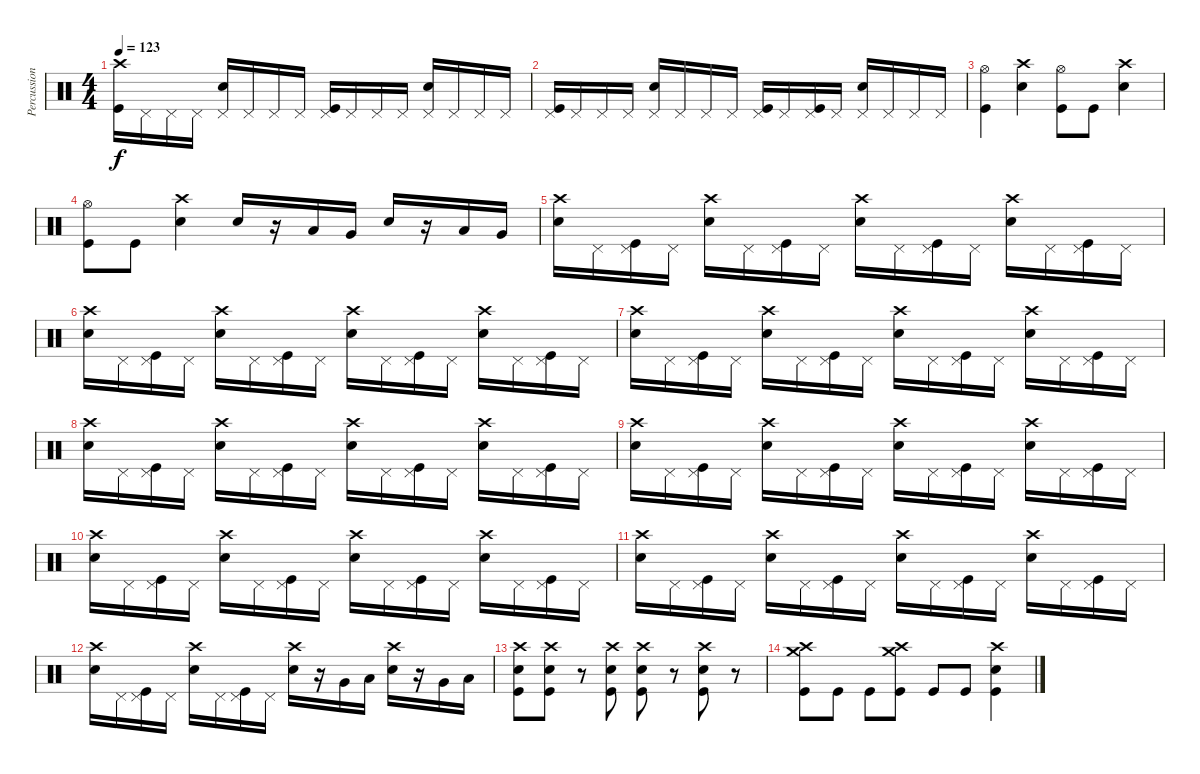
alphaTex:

\track ("Percussion" "Percussion") {instrument percussion}
\staff {score}
\articulation defaults
\ts (4 4)
\tempo 123
\clef neutral
\ks c
("Crash high (hit)" "Kick (hit)").16{dy f} "Pedal Hi-Hat (hit)".16 "Pedal Hi-Hat (hit)".16 "Pedal Hi-Hat (hit)".16 ("Pedal Hi-Hat (hit)" "Snare (hit) 2").16 "Pedal Hi-Hat (hit)".16 "Pedal Hi-Hat (hit)".16 "Pedal Hi-Hat (hit)".16 ("Pedal Hi-Hat (hit)" "Kick (hit)").16 "Pedal Hi-Hat (hit)".16 "Pedal Hi-Hat (hit)".16 "Pedal Hi-Hat (hit)".16 ("Pedal Hi-Hat (hit)" "Snare (hit) 2").16 "Pedal Hi-Hat (hit)".16 "Pedal Hi-Hat (hit)".16 "Pedal Hi-Hat (hit)".16 |
("Pedal Hi-Hat (hit)" "Kick (hit)").16 "Pedal Hi-Hat (hit)".16 "Pedal Hi-Hat (hit)".16 "Pedal Hi-Hat (hit)".16 ("Pedal Hi-Hat (hit)" "Snare (hit) 2").16 "Pedal Hi-Hat (hit)".16 "Pedal Hi-Hat (hit)".16 "Pedal Hi-Hat (hit)".16 ("Pedal Hi-Hat (hit)" "Kick (hit)").16 "Pedal Hi-Hat (hit)".16 ("Pedal Hi-Hat (hit)" "Kick (hit)").16 "Pedal Hi-Hat (hit)".16 ("Pedal Hi-Hat (hit)" "Snare (hit) 2").16 "Pedal Hi-Hat (hit)".16 "Pedal Hi-Hat (hit)".16 "Pedal Hi-Hat (hit)".16 |
("Hi-Hat (open)" "Kick (hit)").4 ("Crash high (hit)" "Snare (hit) 2").4 ("Hi-Hat (open)" "Kick (hit)").8 "Kick (hit)".8 ("Crash high (hit)" "Snare (hit) 2").4 |
("Hi-Hat (open)" "Kick (hit)").8 "Kick (hit)".8 ("Crash high (hit)" "Snare (hit) 2").4 "Snare (hit) 2".16 r.16 "Low Tom (hit)".16 "Very Low Tom (hit)".16 "Snare (hit) 2".16 r.16 "Low Tom (hit)".16 "Very Low Tom (hit)".16 |
("Crash high (hit)" "Snare (hit) 2").16 "Pedal Hi-Hat (hit)".16 ("Pedal Hi-Hat (hit)" "Kick (hit)").16 "Pedal Hi-Hat (hit)".16 ("Crash high (hit)" "Snare (hit) 2").16 "Pedal Hi-Hat (hit)".16 ("Pedal Hi-Hat (hit)" "Kick (hit)").16 "Pedal Hi-Hat (hit)".16 ("Crash high (hit)" "Snare (hit) 2").16 "Pedal Hi-Hat (hit)".16 ("Pedal Hi-Hat (hit)" "Kick (hit)").16 "Pedal Hi-Hat (hit)".16 ("Crash high (hit)" "Snare (hit) 2").16 "Pedal Hi-Hat (hit)".16 ("Pedal Hi-Hat (hit)" "Kick (hit)").16 "Pedal Hi-Hat (hit)".16 |
("Crash high (hit)" "Snare (hit) 2").16 "Pedal Hi-Hat (hit)".16 ("Pedal Hi-Hat (hit)" "Kick (hit)").16 "Pedal Hi-Hat (hit)".16 ("Crash high (hit)" "Snare (hit) 2").16 "Pedal Hi-Hat (hit)".16 ("Pedal Hi-Hat (hit)" "Kick (hit)").16 "Pedal Hi-Hat (hit)".16 ("Crash high (hit)" "Snare (hit) 2").16 "Pedal Hi-Hat (hit)".16 ("Pedal Hi-Hat (hit)" "Kick (hit)").16 "Pedal Hi-Hat (hit)".16 ("Crash high (hit)" "Snare (hit) 2").16 "Pedal Hi-Hat (hit)".16 ("Pedal Hi-Hat (hit)" "Kick (hit)").16 "Pedal Hi-Hat (hit)".16 |
("Crash high (hit)" "Snare (hit) 2").16 "Pedal Hi-Hat (hit)".16 ("Pedal Hi-Hat (hit)" "Kick (hit)").16 "Pedal Hi-Hat (hit)".16 ("Crash high (hit)" "Snare (hit) 2").16 "Pedal Hi-Hat (hit)".16 ("Pedal Hi-Hat (hit)" "Kick (hit)").16 "Pedal Hi-Hat (hit)".16 ("Crash high (hit)" "Snare (hit) 2").16 "Pedal Hi-Hat (hit)".16 ("Pedal Hi-Hat (hit)" "Kick (hit)").16 "Pedal Hi-Hat (hit)".16 ("Crash high (hit)" "Snare (hit) 2").16 "Pedal Hi-Hat (hit)".16 ("Pedal Hi-Hat (hit)" "Kick (hit)").16 "Pedal Hi-Hat (hit)".16 |
("Crash high (hit)" "Snare (hit) 2").16 "Pedal Hi-Hat (hit)".16 ("Pedal Hi-Hat (hit)" "Kick (hit)").16 "Pedal Hi-Hat (hit)".16 ("Crash high (hit)" "Snare (hit) 2").16 "Pedal Hi-Hat (hit)".16 ("Pedal Hi-Hat (hit)" "Kick (hit)").16 "Pedal Hi-Hat (hit)".16 ("Crash high (hit)" "Snare (hit) 2").16 "Pedal Hi-Hat (hit)".16 ("Pedal Hi-Hat (hit)" "Kick (hit)").16 "Pedal Hi-Hat (hit)".16 ("Crash high (hit)" "Snare (hit) 2").16 "Pedal Hi-Hat (hit)".16 ("Pedal Hi-Hat (hit)" "Kick (hit)").16 "Pedal Hi-Hat (hit)".16 |
("Crash high (hit)" "Snare (hit) 2").16 "Pedal Hi-Hat (hit)".16 ("Pedal Hi-Hat (hit)" "Kick (hit)").16 "Pedal Hi-Hat (hit)".16 ("Crash high (hit)" "Snare (hit) 2").16 "Pedal Hi-Hat (hit)".16 ("Pedal Hi-Hat (hit)" "Kick (hit)").16 "Pedal Hi-Hat (hit)".16 ("Crash high (hit)" "Snare (hit) 2").16 "Pedal Hi-Hat (hit)".16 ("Pedal Hi-Hat (hit)" "Kick (hit)").16 "Pedal Hi-Hat (hit)".16 ("Crash high (hit)" "Snare (hit) 2").16 "Pedal Hi-Hat (hit)".16 ("Pedal Hi-Hat (hit)" "Kick (hit)").16 "Pedal Hi-Hat (hit)".16 |
("Crash high (hit)" "Snare (hit) 2").16 "Pedal Hi-Hat (hit)".16 ("Pedal Hi-Hat (hit)" "Kick (hit)").16 "Pedal Hi-Hat (hit)".16 ("Crash high (hit)" "Snare (hit) 2").16 "Pedal Hi-Hat (hit)".16 ("Pedal Hi-Hat (hit)" "Kick (hit)").16 "Pedal Hi-Hat (hit)".16 ("Crash high (hit)" "Snare (hit) 2").16 "Pedal Hi-Hat (hit)".16 ("Pedal Hi-Hat (hit)" "Kick (hit)").16 "Pedal Hi-Hat (hit)".16 ("Crash high (hit)" "Snare (hit) 2").16 "Pedal Hi-Hat (hit)".16 ("Pedal Hi-Hat (hit)" "Kick (hit)").16 "Pedal Hi-Hat (hit)".16 |
("Crash high (hit)" "Snare (hit) 2").16 "Pedal Hi-Hat (hit)".16 ("Pedal Hi-Hat (hit)" "Kick (hit)").16 "Pedal Hi-Hat (hit)".16 ("Crash high (hit)" "Snare (hit) 2").16 "Pedal Hi-Hat (hit)".16 ("Pedal Hi-Hat (hit)" "Kick (hit)").16 "Pedal Hi-Hat (hit)".16 ("Crash high (hit)" "Snare (hit) 2").16 "Pedal Hi-Hat (hit)".16 ("Pedal Hi-Hat (hit)" "Kick (hit)").16 "Pedal Hi-Hat (hit)".16 ("Crash high (hit)" "Snare (hit) 2").16 "Pedal Hi-Hat (hit)".16 ("Pedal Hi-Hat (hit)" "Kick (hit)").16 "Pedal Hi-Hat (hit)".16 |
("Crash high (hit)" "Snare (hit) 2").16 "Pedal Hi-Hat (hit)".16 ("Pedal Hi-Hat (hit)" "Kick (hit)").16 "Pedal Hi-Hat (hit)".16 ("Crash high (hit)" "Snare (hit) 2").16 "Pedal Hi-Hat (hit)".16 ("Pedal Hi-Hat (hit)" "Kick (hit)").16 "Pedal Hi-Hat (hit)".16 ("Crash high (hit)" "Snare (hit) 2").16 r.16 "Very Low Tom (hit)".16 "Low Tom (hit)".16 ("Crash high (hit)" "Snare (hit) 2").16 r.16 "Very Low Tom (hit)".16 "Low Tom (hit)".16 |
("Crash high (hit)" "Snare (hit) 2" "Kick (hit)").8 ("Crash high (hit)" "Snare (hit) 2" "Kick (hit)").8 r.8 ("Crash high (hit)" "Snare (hit) 2" "Kick (hit)").8 ("Crash high (hit)" "Snare (hit) 2" "Kick (hit)").8 r.8 ("Crash high (hit)" "Snare (hit) 2" "Kick (hit)").8 r.8 |
("Crash high (hit)" "Crash medium (hit)" "Kick (hit)").8 "Kick (hit)".8 "Kick (hit)".8 ("Crash high (hit)" "Crash medium (hit)" "Kick (hit)").8 "Kick (hit)".8 "Kick (hit)".8 ("Crash high (hit)" "Snare (hit) 2" "Kick (hit)").4
